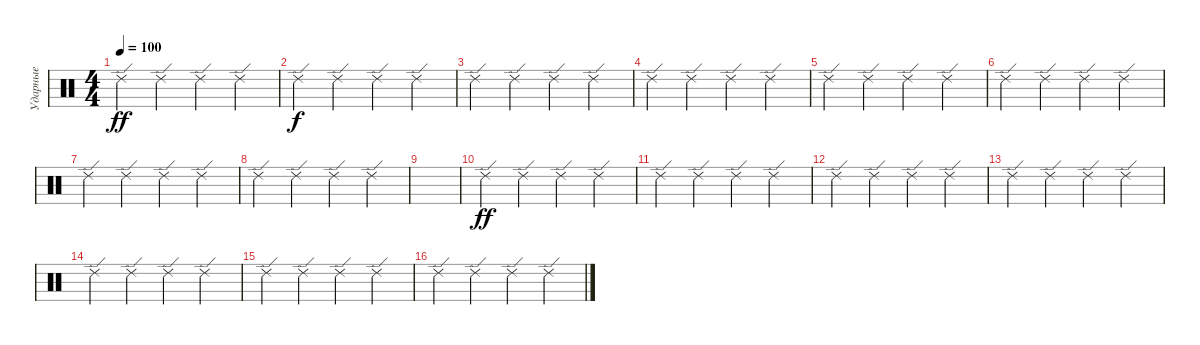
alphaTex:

\track ("Ударные" "Ударные") {instrument percussion}
\staff {score}
\articulation defaults
\ts (4 4)
\tempo 100
\clef neutral
\ks c "Ride (edge) 2".4{dy ff} "Ride (edge) 2".4 "Ride (edge) 2".4 "Ride (edge) 2".4
|
"Ride (edge) 2".4{dy f} "Ride (edge) 2".4 "Ride (edge) 2".4 "Ride (edge) 2".4 |
"Ride (edge) 2".4 "Ride (edge) 2".4 "Ride (edge) 2".4 "Ride (edge) 2".4 |
"Ride (edge) 2".4 "Ride (edge) 2".4 "Ride (edge) 2".4 "Ride (edge) 2".4 |
"Ride (edge) 2".4 "Ride (edge) 2".4 "Ride (edge) 2".4 "Ride (edge) 2".4 |
"Ride (edge) 2".4 "Ride (edge) 2".4 "Ride (edge) 2".4 "Ride (edge) 2".4 |
"Ride (edge) 2".4 "Ride (edge) 2".4 "Ride (edge) 2".4 "Ride (edge) 2".4 |
"Ride (edge) 2".4 "Ride (edge) 2".4 "Ride (edge) 2".4 "Ride (edge) 2".4 |
|
"Ride (edge) 2".4{dy ff} "Ride (edge) 2".4 "Ride (edge) 2".4 "Ride (edge) 2".4 |
"Ride (edge) 2".4 "Ride (edge) 2".4 "Ride (edge) 2".4 "Ride (edge) 2".4 |
"Ride (edge) 2".4 "Ride (edge) 2".4 "Ride (edge) 2".4 "Ride (edge) 2".4 |
"Ride (edge) 2".4 "Ride (edge) 2".4 "Ride (edge) 2".4 "Ride (edge) 2".4 |
"Ride (edge) 2".4 "Ride (edge) 2".4 "Ride (edge) 2".4 "Ride (edge) 2".4 |
"Ride (edge) 2".4 "Ride (edge) 2".4 "Ride (edge) 2".4 "Ride (edge) 2".4 |
"Ride (edge) 2".4 "Ride (edge) 2".4 "Ride (edge) 2".4 "Ride (edge) 2".4
